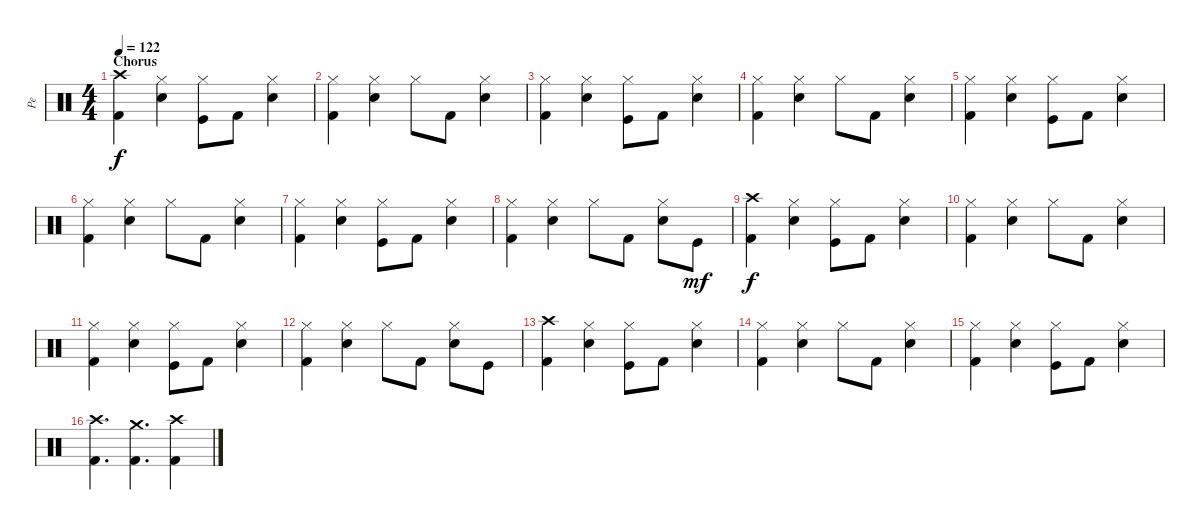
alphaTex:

\track ("Pe" "Pe") {instrument percussion}
\staff {score}
\articulation defaults
\ts (4 4)
\section ("" "Chorus")
\tempo 122
\clef neutral
\ks c
("Kick (hit) 2" "Crash high (hit)").4{dy f} ("Electric Snare (hit)" "Hi-Hat (closed)").4 ("Kick (hit)" "Hi-Hat (closed)").8 "Kick (hit) 2".8 ("Electric Snare (hit)" "Hi-Hat (closed)").4 |
("Kick (hit) 2" "Hi-Hat (closed)").4 ("Electric Snare (hit)" "Hi-Hat (closed)").4 "Hi-Hat (closed)".8 "Kick (hit) 2".8 ("Electric Snare (hit)" "Hi-Hat (closed)").4 |
("Kick (hit) 2" "Hi-Hat (closed)").4 ("Electric Snare (hit)" "Hi-Hat (closed)").4 ("Kick (hit)" "Hi-Hat (closed)").8 "Kick (hit) 2".8 ("Electric Snare (hit)" "Hi-Hat (closed)").4 |
("Kick (hit) 2" "Hi-Hat (closed)").4 ("Electric Snare (hit)" "Hi-Hat (closed)").4 "Hi-Hat (closed)".8 "Kick (hit) 2".8 ("Electric Snare (hit)" "Hi-Hat (closed)").4 |
("Kick (hit) 2" "Hi-Hat (closed)").4 ("Electric Snare (hit)" "Hi-Hat (closed)").4 ("Kick (hit)" "Hi-Hat (closed)").8 "Kick (hit) 2".8 ("Electric Snare (hit)" "Hi-Hat (closed)").4 |
("Kick (hit) 2" "Hi-Hat (closed)").4 ("Electric Snare (hit)" "Hi-Hat (closed)").4 "Hi-Hat (closed)".8 "Kick (hit) 2".8 ("Electric Snare (hit)" "Hi-Hat (closed)").4 |
("Kick (hit) 2" "Hi-Hat (closed)").4 ("Electric Snare (hit)" "Hi-Hat (closed)").4 ("Kick (hit)" "Hi-Hat (closed)").8 "Kick (hit) 2".8 ("Electric Snare (hit)" "Hi-Hat (closed)").4 |
("Kick (hit) 2" "Hi-Hat (closed)").4 ("Electric Snare (hit)" "Hi-Hat (closed)").4 "Hi-Hat (closed)".8 "Kick (hit) 2".8 ("Electric Snare (hit)" "Hi-Hat (closed)").8 "Kick (hit)".8{dy mf} |
("Kick (hit) 2" "Crash high (hit)").4{dy f} ("Electric Snare (hit)" "Hi-Hat (closed)").4 ("Kick (hit)" "Hi-Hat (closed)").8 "Kick (hit) 2".8 ("Electric Snare (hit)" "Hi-Hat (closed)").4 |
("Kick (hit) 2" "Hi-Hat (closed)").4 ("Electric Snare (hit)" "Hi-Hat (closed)").4 "Hi-Hat (closed)".8 "Kick (hit) 2".8 ("Electric Snare (hit)" "Hi-Hat (closed)").4 |
("Kick (hit) 2" "Hi-Hat (closed)").4 ("Electric Snare (hit)" "Hi-Hat (closed)").4 ("Kick (hit)" "Hi-Hat (closed)").8 "Kick (hit) 2".8 ("Electric Snare (hit)" "Hi-Hat (closed)").4 |
("Kick (hit) 2" "Hi-Hat (closed)").4 ("Electric Snare (hit)" "Hi-Hat (closed)").4 "Hi-Hat (closed)".8 "Kick (hit) 2".8 ("Electric Snare (hit)" "Hi-Hat (closed)").8 "Kick (hit)".8 |
("Kick (hit) 2" "Crash high (hit)").4 ("Electric Snare (hit)" "Hi-Hat (closed)").4 ("Kick (hit)" "Hi-Hat (closed)").8 "Kick (hit) 2".8 ("Electric Snare (hit)" "Hi-Hat (closed)").4 |
("Kick (hit) 2" "Hi-Hat (closed)").4 ("Electric Snare (hit)" "Hi-Hat (closed)").4 "Hi-Hat (closed)".8 "Kick (hit) 2".8 ("Electric Snare (hit)" "Hi-Hat (closed)").4 |
("Kick (hit) 2" "Hi-Hat (closed)").4 ("Electric Snare (hit)" "Hi-Hat (closed)").4 ("Kick (hit)" "Hi-Hat (closed)").8 "Kick (hit) 2".8 ("Electric Snare (hit)" "Hi-Hat (closed)").4 |
("Kick (hit) 2" "Crash high (hit)").4{d} ("Kick (hit) 2" "Crash medium (hit)").4{d} ("Kick (hit) 2" "Crash high (hit)").4
